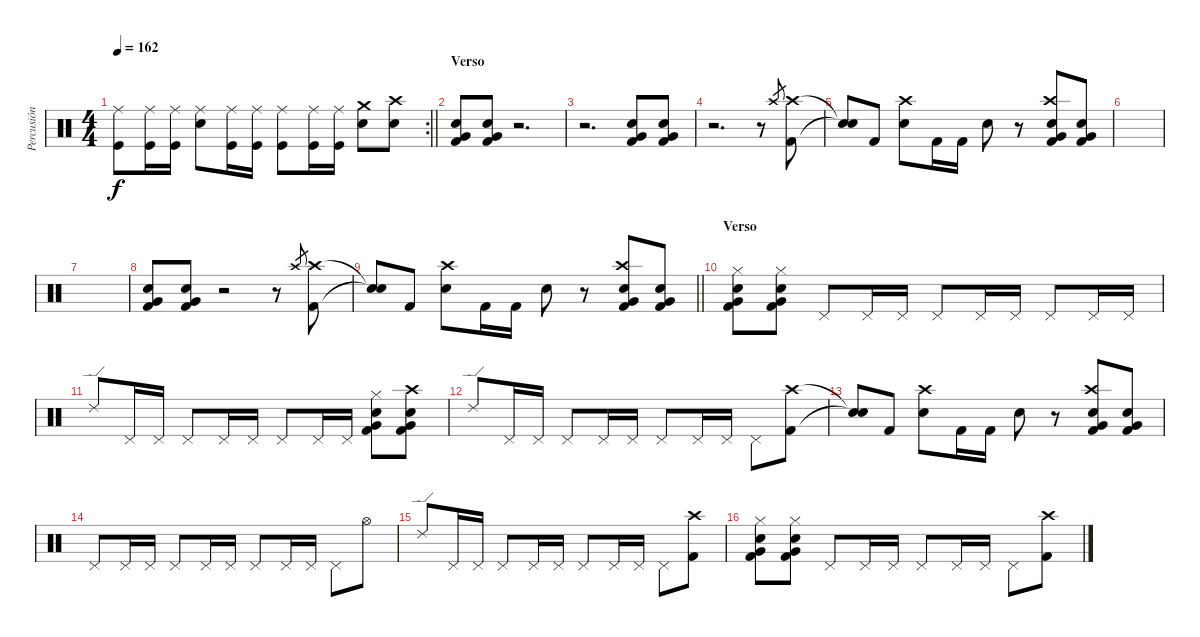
\track ("Percusión" "Percusión") {instrument percussion}
\staff {score}
\articulation defaults
\rc 2
\ts (4 4)
\tempo 162
\clef neutral
\barLineRight lightlight
\ks c
("Ride (middle)" "Kick (hit)").8{dy f} ("Ride (middle)" "Kick (hit)").16 ("Ride (middle)" "Kick (hit)").16 ("Ride (middle)" "Electric Snare (hit)").8 ("Ride (middle)" "Kick (hit)").16 ("Ride (middle)" "Kick (hit)").16 ("Ride (middle)" "Kick (hit)").8 ("Ride (middle)" "Kick (hit)").16 ("Ride (middle)" "Kick (hit)").16 ("Crash medium (hit)" "Electric Snare (hit)").8 ("Crash high (hit)" "Electric Snare (hit)").8 |
\section ("" "Verso")
("Very Low Tom (hit)" "Electric Snare (hit)" "Kick (hit) 2").8 ("Very Low Tom (hit)" "Electric Snare (hit)" "Kick (hit) 2").8 r.2{d} |
r.2{d} ("Very Low Tom (hit)" "Electric Snare (hit)" "Kick (hit) 2").8 ("Very Low Tom (hit)" "Electric Snare (hit)" "Kick (hit) 2").8 |
r.2{d} r.8 "Crash high (hit)".8{gr} ("Crash high (hit)" "Kick (hit) 2").8 |
("Snare (hit)"{t} "Snare (hit)"{t}).8 "Kick (hit) 2".8 ("Crash high (hit)" "Electric Snare (hit)").8 "Kick (hit) 2".16 "Kick (hit) 2".16 "Electric Snare (hit)".8 r.8 ("Crash high (hit)" "Very Low Tom (hit)" "Electric Snare (hit)" "Kick (hit) 2").8 ("Very Low Tom (hit)" "Electric Snare (hit)" "Kick (hit) 2").8 |
|
|
("Very Low Tom (hit)" "Electric Snare (hit)" "Kick (hit) 2").8 ("Very Low Tom (hit)" "Electric Snare (hit)" "Kick (hit) 2").8 r.2 r.8 "Crash high (hit)".8{gr} ("Crash high (hit)" "Kick (hit) 2").8 |
\barLineRight lightlight
("Snare (hit)"{t} "Snare (hit)"{t}).8 "Kick (hit) 2".8 ("Crash high (hit)" "Electric Snare (hit)").8 "Kick (hit) 2".16 "Kick (hit) 2".16 "Electric Snare (hit)".8 r.8 ("Crash high (hit)" "Very Low Tom (hit)" "Electric Snare (hit)" "Kick (hit) 2").8 ("Very Low Tom (hit)" "Electric Snare (hit)" "Kick (hit) 2").8 |
\section ("" "Verso")
("Hi-Hat (closed)" "Very Low Tom (hit)" "Electric Snare (hit)" "Kick (hit) 2").8 ("Hi-Hat (closed)" "Very Low Tom (hit)" "Electric Snare (hit)" "Kick (hit) 2").8 "Pedal Hi-Hat (hit)".8 "Pedal Hi-Hat (hit)".16 "Pedal Hi-Hat (hit)".16 "Pedal Hi-Hat (hit)".8 "Pedal Hi-Hat (hit)".16 "Pedal Hi-Hat (hit)".16 "Pedal Hi-Hat (hit)".8 "Pedal Hi-Hat (hit)".16 "Pedal Hi-Hat (hit)".16 |
"Ride (edge) 2".8 "Pedal Hi-Hat (hit)".16 "Pedal Hi-Hat (hit)".16 "Pedal Hi-Hat (hit)".8 "Pedal Hi-Hat (hit)".16 "Pedal Hi-Hat (hit)".16 "Pedal Hi-Hat (hit)".8 "Pedal Hi-Hat (hit)".16 "Pedal Hi-Hat (hit)".16 ("Hi-Hat (closed)" "Very Low Tom (hit)" "Electric Snare (hit)" "Kick (hit) 2").8 ("Crash high (hit)" "Very Low Tom (hit)" "Electric Snare (hit)" "Kick (hit) 2").8 |
"Ride (edge) 2".8 "Pedal Hi-Hat (hit)".16 "Pedal Hi-Hat (hit)".16 "Pedal Hi-Hat (hit)".8 "Pedal Hi-Hat (hit)".16 "Pedal Hi-Hat (hit)".16 "Pedal Hi-Hat (hit)".8 "Pedal Hi-Hat (hit)".16 "Pedal Hi-Hat (hit)".16 "Pedal Hi-Hat (hit)".8 ("Crash high (hit)" "Kick (hit) 2").8 |
("Snare (hit)"{t} "Snare (hit)"{t}).8 "Kick (hit) 2".8 ("Crash high (hit)" "Electric Snare (hit)").8 "Kick (hit) 2".16 "Kick (hit) 2".16 "Electric Snare (hit)".8 r.8 ("Crash high (hit)" "Very Low Tom (hit)" "Electric Snare (hit)" "Kick (hit) 2").8 ("Very Low Tom (hit)" "Electric Snare (hit)" "Kick (hit) 2").8 |
"Pedal Hi-Hat (hit)".8 "Pedal Hi-Hat (hit)".16 "Pedal Hi-Hat (hit)".16 "Pedal Hi-Hat (hit)".8 "Pedal Hi-Hat (hit)".16 "Pedal Hi-Hat (hit)".16 "Pedal Hi-Hat (hit)".8 "Pedal Hi-Hat (hit)".16 "Pedal Hi-Hat (hit)".16 "Pedal Hi-Hat (hit)".8 "Hi-Hat (open)".8 |
"Ride (edge) 2".8 "Pedal Hi-Hat (hit)".16 "Pedal Hi-Hat (hit)".16 "Pedal Hi-Hat (hit)".8 "Pedal Hi-Hat (hit)".16 "Pedal Hi-Hat (hit)".16 "Pedal Hi-Hat (hit)".8 "Pedal Hi-Hat (hit)".16 "Pedal Hi-Hat (hit)".16 "Pedal Hi-Hat (hit)".8 ("Crash high (hit)" "Kick (hit) 2").8 |
("Hi-Hat (closed)" "Very Low Tom (hit)" "Electric Snare (hit)" "Kick (hit) 2").8 ("Hi-Hat (closed)" "Very Low Tom (hit)" "Electric Snare (hit)" "Kick (hit) 2").8 "Pedal Hi-Hat (hit)".8 "Pedal Hi-Hat (hit)".16 "Pedal Hi-Hat (hit)".16 "Pedal Hi-Hat (hit)".8 "Pedal Hi-Hat (hit)".16 "Pedal Hi-Hat (hit)".16 "Pedal Hi-Hat (hit)".8 ("Crash high (hit)" "Kick (hit) 2").8
